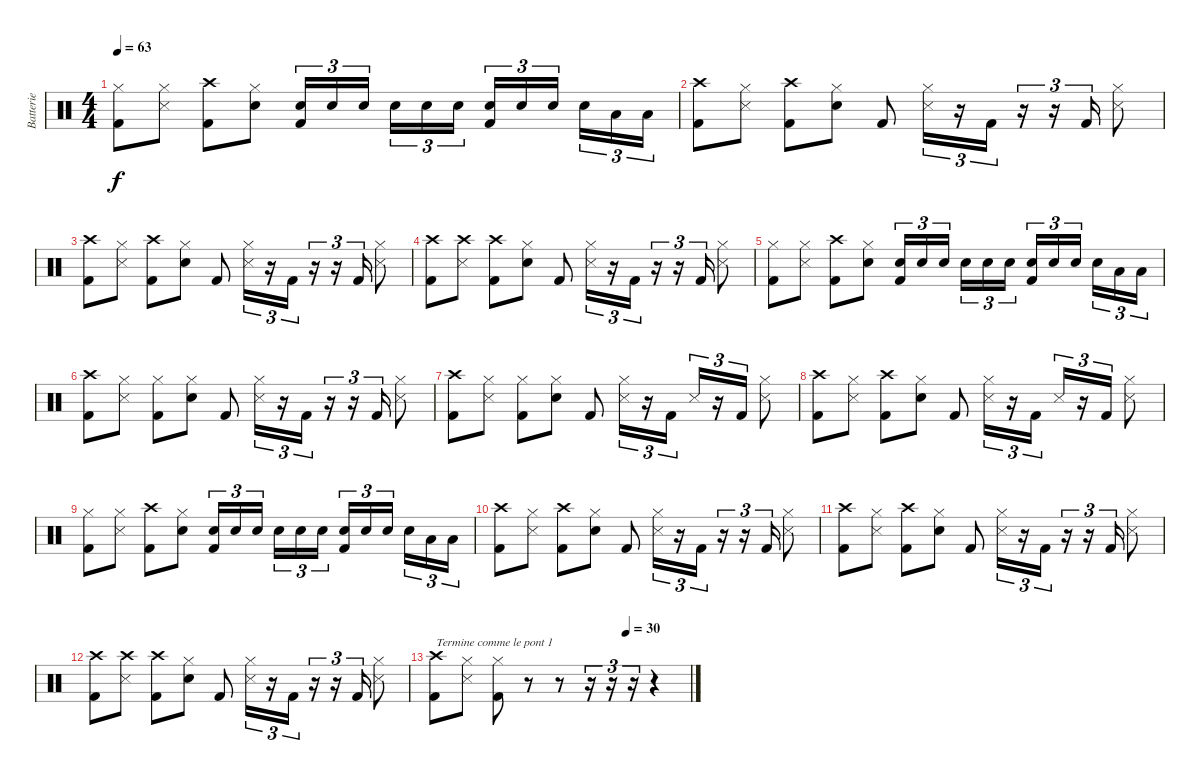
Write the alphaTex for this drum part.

\track ("Batterie" "Batterie") {instrument percussion}
\staff {score}
\articulation defaults
\ts (4 4)
\tempo 63
\clef neutral
\ks c
("Hi-Hat (closed)" "Kick (hit) 2").8{dy f} ("Snare (side stick) 3" "Hi-Hat (closed)").8 ("Crash high (hit)" "Kick (hit) 2").8 ("Electric Snare (hit)" "Hi-Hat (closed)").8 ("Electric Snare (hit)" "Kick (hit) 2").16{tu (3 2)} "Electric Snare (hit)".16{tu (3 2)} "Electric Snare (hit)".16{tu (3 2)} "Electric Snare (hit)".16{tu (3 2)} "Electric Snare (hit)".16{tu (3 2)} "Electric Snare (hit)".16{tu (3 2)} ("Electric Snare (hit)" "Kick (hit) 2").16{tu (3 2)} "Electric Snare (hit)".16{tu (3 2)} "Electric Snare (hit)".16{tu (3 2)} "Electric Snare (hit)".16{tu (3 2)} "Low Tom (hit)".16{tu (3 2)} "Low Tom (hit)".16{tu (3 2)} |
("Crash high (hit)" "Kick (hit) 2").8 ("Snare (side stick) 3" "Hi-Hat (closed)").8 ("Crash high (hit)" "Kick (hit) 2").8 ("Electric Snare (hit)" "Hi-Hat (closed)").8 "Kick (hit) 2".8 ("Snare (side stick) 3" "Hi-Hat (closed)").16{tu (3 2)} r.16{tu (3 2)} "Kick (hit) 2".16{tu (3 2)} r.16{tu (3 2)} r.16{tu (3 2)} "Kick (hit) 2".16{tu (3 2)} ("Snare (side stick) 3" "Hi-Hat (closed)").8 |
("Crash high (hit)" "Kick (hit) 2").8 ("Snare (side stick) 3" "Hi-Hat (closed)").8 ("Crash high (hit)" "Kick (hit) 2").8 ("Electric Snare (hit)" "Hi-Hat (closed)").8 "Kick (hit) 2".8 ("Snare (side stick) 3" "Hi-Hat (closed)").16{tu (3 2)} r.16{tu (3 2)} "Kick (hit) 2".16{tu (3 2)} r.16{tu (3 2)} r.16{tu (3 2)} "Kick (hit) 2".16{tu (3 2)} ("Snare (side stick) 3" "Hi-Hat (closed)").8 |
("Crash high (hit)" "Kick (hit) 2").8 ("Snare (side stick) 3" "Crash high (hit)").8 ("Crash high (hit)" "Kick (hit) 2").8 ("Electric Snare (hit)" "Hi-Hat (closed)").8 "Kick (hit) 2".8 ("Snare (side stick) 3" "Hi-Hat (closed)").16{tu (3 2)} r.16{tu (3 2)} "Kick (hit) 2".16{tu (3 2)} r.16{tu (3 2)} r.16{tu (3 2)} "Kick (hit) 2".16{tu (3 2)} ("Snare (side stick) 3" "Hi-Hat (closed)").8 |
("Hi-Hat (closed)" "Kick (hit) 2").8 ("Snare (side stick) 3" "Hi-Hat (closed)").8 ("Crash high (hit)" "Kick (hit) 2").8 ("Electric Snare (hit)" "Hi-Hat (closed)").8 ("Electric Snare (hit)" "Kick (hit) 2").16{tu (3 2)} "Electric Snare (hit)".16{tu (3 2)} "Electric Snare (hit)".16{tu (3 2)} "Electric Snare (hit)".16{tu (3 2)} "Electric Snare (hit)".16{tu (3 2)} "Electric Snare (hit)".16{tu (3 2)} ("Electric Snare (hit)" "Kick (hit) 2").16{tu (3 2)} "Electric Snare (hit)".16{tu (3 2)} "Electric Snare (hit)".16{tu (3 2)} "Electric Snare (hit)".16{tu (3 2)} "Low Tom (hit)".16{tu (3 2)} "Low Tom (hit)".16{tu (3 2)} |
("Crash high (hit)" "Kick (hit) 2").8 ("Snare (side stick) 3" "Hi-Hat (closed)").8 ("Hi-Hat (closed)" "Kick (hit) 2").8 ("Electric Snare (hit)" "Hi-Hat (closed)").8 "Kick (hit) 2".8 ("Snare (side stick) 3" "Hi-Hat (closed)").16{tu (3 2)} r.16{tu (3 2)} "Kick (hit) 2".16{tu (3 2)} r.16{tu (3 2)} r.16{tu (3 2)} "Kick (hit) 2".16{tu (3 2)} ("Snare (side stick) 3" "Hi-Hat (closed)").8 |
("Crash high (hit)" "Kick (hit) 2").8 ("Snare (side stick) 3" "Hi-Hat (closed)").8 ("Hi-Hat (closed)" "Kick (hit) 2").8 ("Electric Snare (hit)" "Hi-Hat (closed)").8 "Kick (hit) 2".8 ("Snare (side stick) 3" "Hi-Hat (closed)").16{tu (3 2)} r.16{tu (3 2)} "Kick (hit) 2".16{tu (3 2)} "Snare (side stick) 3".16{tu (3 2)} r.16{tu (3 2)} "Kick (hit) 2".16{tu (3 2)} ("Snare (side stick) 3" "Hi-Hat (closed)").8 |
("Crash high (hit)" "Kick (hit) 2").8 ("Snare (side stick) 3" "Hi-Hat (closed)").8 ("Crash high (hit)" "Kick (hit) 2").8 ("Electric Snare (hit)" "Hi-Hat (closed)").8 "Kick (hit) 2".8 ("Snare (side stick) 3" "Hi-Hat (closed)").16{tu (3 2)} r.16{tu (3 2)} "Kick (hit) 2".16{tu (3 2)} "Snare (side stick) 3".16{tu (3 2)} r.16{tu (3 2)} "Kick (hit) 2".16{tu (3 2)} ("Snare (side stick) 3" "Hi-Hat (closed)").8 |
("Hi-Hat (closed)" "Kick (hit) 2").8 ("Snare (side stick) 3" "Hi-Hat (closed)").8 ("Crash high (hit)" "Kick (hit) 2").8 ("Electric Snare (hit)" "Hi-Hat (closed)").8 ("Electric Snare (hit)" "Kick (hit) 2").16{tu (3 2)} "Electric Snare (hit)".16{tu (3 2)} "Electric Snare (hit)".16{tu (3 2)} "Electric Snare (hit)".16{tu (3 2)} "Electric Snare (hit)".16{tu (3 2)} "Electric Snare (hit)".16{tu (3 2)} ("Electric Snare (hit)" "Kick (hit) 2").16{tu (3 2)} "Electric Snare (hit)".16{tu (3 2)} "Electric Snare (hit)".16{tu (3 2)} "Electric Snare (hit)".16{tu (3 2)} "Low Tom (hit)".16{tu (3 2)} "Low Tom (hit)".16{tu (3 2)} |
("Crash high (hit)" "Kick (hit) 2").8 ("Snare (side stick) 3" "Hi-Hat (closed)").8 ("Crash high (hit)" "Kick (hit) 2").8 ("Electric Snare (hit)" "Hi-Hat (closed)").8 "Kick (hit) 2".8 ("Snare (side stick) 3" "Hi-Hat (closed)").16{tu (3 2)} r.16{tu (3 2)} "Kick (hit) 2".16{tu (3 2)} r.16{tu (3 2)} r.16{tu (3 2)} "Kick (hit) 2".16{tu (3 2)} ("Snare (side stick) 3" "Hi-Hat (closed)").8 |
("Crash high (hit)" "Kick (hit) 2").8 ("Snare (side stick) 3" "Hi-Hat (closed)").8 ("Crash high (hit)" "Kick (hit) 2").8 ("Electric Snare (hit)" "Hi-Hat (closed)").8 "Kick (hit) 2".8 ("Snare (side stick) 3" "Hi-Hat (closed)").16{tu (3 2)} r.16{tu (3 2)} "Kick (hit) 2".16{tu (3 2)} r.16{tu (3 2)} r.16{tu (3 2)} "Kick (hit) 2".16{tu (3 2)} ("Snare (side stick) 3" "Hi-Hat (closed)").8 |
("Crash high (hit)" "Kick (hit) 2").8 ("Snare (side stick) 3" "Crash high (hit)").8 ("Crash high (hit)" "Kick (hit) 2").8 ("Electric Snare (hit)" "Hi-Hat (closed)").8 "Kick (hit) 2".8 ("Snare (side stick) 3" "Hi-Hat (closed)").16{tu (3 2)} r.16{tu (3 2)} "Kick (hit) 2".16{tu (3 2)} r.16{tu (3 2)} r.16{tu (3 2)} "Kick (hit) 2".16{tu (3 2)} ("Snare (side stick) 3" "Hi-Hat (closed)").8 |
\tempo (30 0.75)
("Crash high (hit)" "Kick (hit) 2").8{txt "Termine comme le pont 1"} ("Snare (side stick) 3" "Hi-Hat (closed)").8 ("Hi-Hat (closed)" "Kick (hit) 2").8 r.8 r.8 r.16{tu (3 2)} r.16{tu (3 2)} r.16{tu (3 2)} r.4
